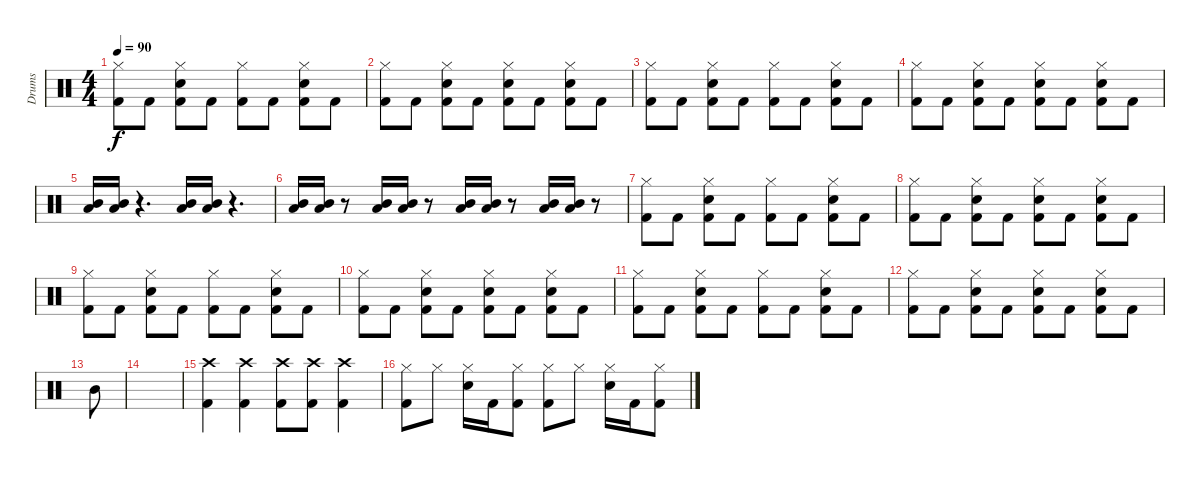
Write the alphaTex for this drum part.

\track ("Drums" "Drums") {instrument percussion}
\staff {score}
\articulation defaults
\ts (4 4)
\tempo 90
\clef neutral
\ks c
("Hi-Hat (closed)" "Kick (hit) 2").8{dy f} "Kick (hit) 2".8 ("Hi-Hat (closed)" "Kick (hit) 2" "Snare (hit) 2").8 "Kick (hit) 2".8 ("Hi-Hat (closed)" "Kick (hit) 2").8 "Kick (hit) 2".8 ("Hi-Hat (closed)" "Kick (hit) 2" "Snare (hit) 2").8 "Kick (hit) 2".8 |
("Hi-Hat (closed)" "Kick (hit) 2").8 "Kick (hit) 2".8 ("Hi-Hat (closed)" "Kick (hit) 2" "Snare (hit) 2").8 "Kick (hit) 2".8 ("Hi-Hat (closed)" "Kick (hit) 2" "Snare (hit) 2").8 "Kick (hit) 2".8 ("Hi-Hat (closed)" "Kick (hit) 2" "Snare (hit) 2").8 "Kick (hit) 2".8 |
("Hi-Hat (closed)" "Kick (hit) 2").8 "Kick (hit) 2".8 ("Hi-Hat (closed)" "Kick (hit) 2" "Snare (hit) 2").8 "Kick (hit) 2".8 ("Hi-Hat (closed)" "Kick (hit) 2").8 "Kick (hit) 2".8 ("Hi-Hat (closed)" "Kick (hit) 2" "Snare (hit) 2").8 "Kick (hit) 2".8 |
("Hi-Hat (closed)" "Kick (hit) 2").8 "Kick (hit) 2".8 ("Hi-Hat (closed)" "Kick (hit) 2" "Snare (hit) 2").8 "Kick (hit) 2".8 ("Hi-Hat (closed)" "Kick (hit) 2" "Snare (hit) 2").8 "Kick (hit) 2".8 ("Hi-Hat (closed)" "Kick (hit) 2" "Snare (hit) 2").8 "Kick (hit) 2".8 |
("Mid Tom (hit)" "Low Tom (hit)").16 ("Mid Tom (hit)" "Low Tom (hit)").16 r.4{d} ("Mid Tom (hit)" "Low Tom (hit)").16 ("Mid Tom (hit)" "Low Tom (hit)").16 r.4{d} |
("Mid Tom (hit)" "Low Tom (hit)").16 ("Mid Tom (hit)" "Low Tom (hit)").16 r.8 ("Mid Tom (hit)" "Low Tom (hit)").16 ("Mid Tom (hit)" "Low Tom (hit)").16 r.8 ("Mid Tom (hit)" "Low Tom (hit)").16 ("Mid Tom (hit)" "Low Tom (hit)").16 r.8 ("Mid Tom (hit)" "Low Tom (hit)").16 ("Mid Tom (hit)" "Low Tom (hit)").16 r.8 |
("Hi-Hat (closed)" "Kick (hit) 2").8 "Kick (hit) 2".8 ("Hi-Hat (closed)" "Kick (hit) 2" "Snare (hit) 2").8 "Kick (hit) 2".8 ("Hi-Hat (closed)" "Kick (hit) 2").8 "Kick (hit) 2".8 ("Hi-Hat (closed)" "Kick (hit) 2" "Snare (hit) 2").8 "Kick (hit) 2".8 |
("Hi-Hat (closed)" "Kick (hit) 2").8 "Kick (hit) 2".8 ("Hi-Hat (closed)" "Kick (hit) 2" "Snare (hit) 2").8 "Kick (hit) 2".8 ("Hi-Hat (closed)" "Kick (hit) 2" "Snare (hit) 2").8 "Kick (hit) 2".8 ("Hi-Hat (closed)" "Kick (hit) 2" "Snare (hit) 2").8 "Kick (hit) 2".8 |
("Hi-Hat (closed)" "Kick (hit) 2").8 "Kick (hit) 2".8 ("Hi-Hat (closed)" "Kick (hit) 2" "Snare (hit) 2").8 "Kick (hit) 2".8 ("Hi-Hat (closed)" "Kick (hit) 2").8 "Kick (hit) 2".8 ("Hi-Hat (closed)" "Kick (hit) 2" "Snare (hit) 2").8 "Kick (hit) 2".8 |
("Hi-Hat (closed)" "Kick (hit) 2").8 "Kick (hit) 2".8 ("Hi-Hat (closed)" "Kick (hit) 2" "Snare (hit) 2").8 "Kick (hit) 2".8 ("Hi-Hat (closed)" "Kick (hit) 2" "Snare (hit) 2").8 "Kick (hit) 2".8 ("Hi-Hat (closed)" "Kick (hit) 2" "Snare (hit) 2").8 "Kick (hit) 2".8 |
("Hi-Hat (closed)" "Kick (hit) 2").8 "Kick (hit) 2".8 ("Hi-Hat (closed)" "Kick (hit) 2" "Snare (hit) 2").8 "Kick (hit) 2".8 ("Hi-Hat (closed)" "Kick (hit) 2").8 "Kick (hit) 2".8 ("Hi-Hat (closed)" "Kick (hit) 2" "Snare (hit) 2").8 "Kick (hit) 2".8 |
("Hi-Hat (closed)" "Kick (hit) 2").8 "Kick (hit) 2".8 ("Hi-Hat (closed)" "Kick (hit) 2" "Snare (hit) 2").8 "Kick (hit) 2".8 ("Hi-Hat (closed)" "Kick (hit) 2" "Snare (hit) 2").8 "Kick (hit) 2".8 ("Hi-Hat (closed)" "Kick (hit) 2" "Snare (hit) 2").8 "Kick (hit) 2".8 |
"Mid Tom (hit)".8 |
|
("Crash high (hit)" "Kick (hit) 2").4 ("Crash high (hit)" "Kick (hit) 2").4 ("Crash high (hit)" "Kick (hit) 2").8 ("Crash high (hit)" "Kick (hit) 2").8 ("Crash high (hit)" "Kick (hit) 2").4 |
("Hi-Hat (closed)" "Kick (hit) 2").8 "Hi-Hat (closed)".8 ("Hi-Hat (closed)" "Snare (hit) 2").16 "Kick (hit) 2".16 ("Hi-Hat (closed)" "Kick (hit) 2").8 ("Hi-Hat (closed)" "Kick (hit) 2").8 "Hi-Hat (closed)".8 ("Hi-Hat (closed)" "Snare (hit) 2").16 "Kick (hit) 2".16 ("Hi-Hat (closed)" "Kick (hit) 2").8
